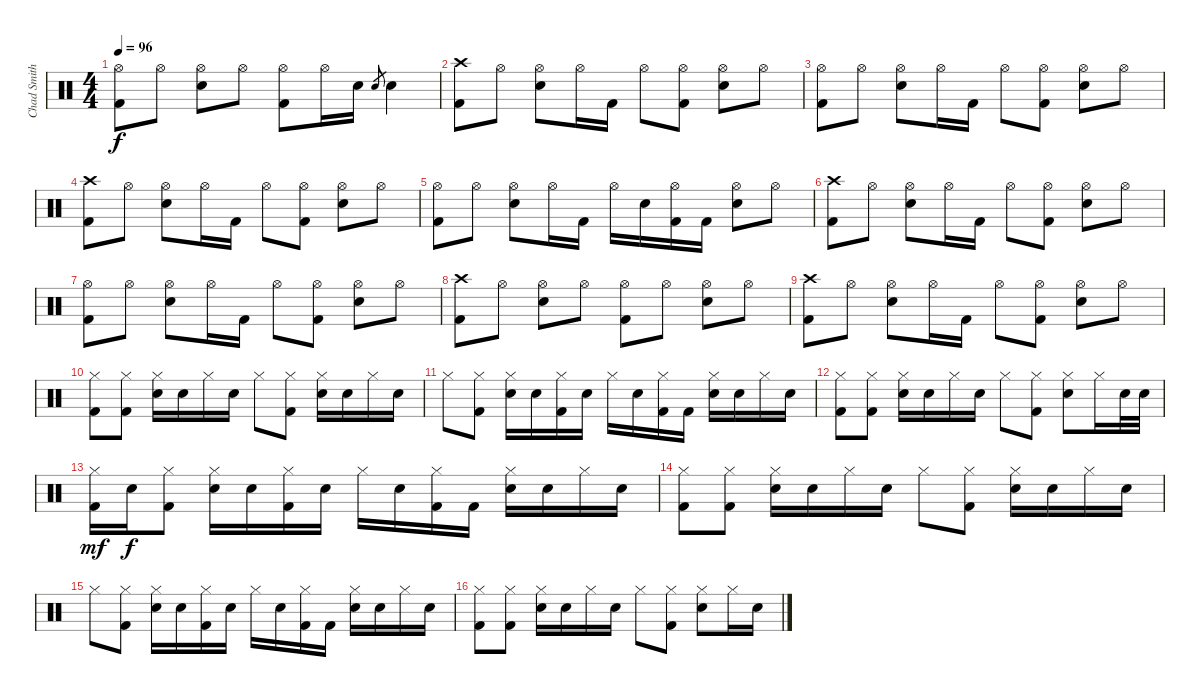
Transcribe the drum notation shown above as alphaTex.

\track ("Chad Smith" "Chad Smith") {instrument percussion}
\staff {score}
\articulation defaults
\ts (4 4)
\tempo 96
\clef neutral
\ks c
("Hi-Hat (open)" "Kick (hit) 2").8{dy f} "Hi-Hat (open)".8 ("Hi-Hat (open)" "Electric Snare (hit)").8 "Hi-Hat (open)".8 ("Hi-Hat (open)" "Kick (hit) 2").8 "Hi-Hat (open)".16 "Electric Snare (hit)".16 "Electric Snare (hit)".8{gr} "Electric Snare (hit)".4 |
("Crash high (hit)" "Kick (hit) 2").8 "Hi-Hat (open)".8 ("Hi-Hat (open)" "Electric Snare (hit)").8 "Hi-Hat (open)".16 "Kick (hit) 2".16 "Hi-Hat (open)".8 ("Hi-Hat (open)" "Kick (hit) 2").8 ("Hi-Hat (open)" "Electric Snare (hit)").8 "Hi-Hat (open)".8 |
("Hi-Hat (open)" "Kick (hit) 2").8 "Hi-Hat (open)".8 ("Hi-Hat (open)" "Electric Snare (hit)").8 "Hi-Hat (open)".16 "Kick (hit) 2".16 "Hi-Hat (open)".8 ("Hi-Hat (open)" "Kick (hit) 2").8 ("Hi-Hat (open)" "Electric Snare (hit)").8 "Hi-Hat (open)".8 |
("Crash high (hit)" "Kick (hit) 2").8 "Hi-Hat (open)".8 ("Hi-Hat (open)" "Electric Snare (hit)").8 "Hi-Hat (open)".16 "Kick (hit) 2".16 "Hi-Hat (open)".8 ("Hi-Hat (open)" "Kick (hit) 2").8 ("Hi-Hat (open)" "Electric Snare (hit)").8 "Hi-Hat (open)".8 |
("Hi-Hat (open)" "Kick (hit) 2").8 "Hi-Hat (open)".8 ("Hi-Hat (open)" "Electric Snare (hit)").8 "Hi-Hat (open)".16 "Kick (hit) 2".16 "Hi-Hat (open)".16 "Electric Snare (hit)".16 ("Hi-Hat (open)" "Kick (hit) 2").16 "Kick (hit) 2".16 ("Hi-Hat (open)" "Electric Snare (hit)").8 "Hi-Hat (open)".8 |
("Crash high (hit)" "Kick (hit) 2").8 "Hi-Hat (open)".8 ("Hi-Hat (open)" "Electric Snare (hit)").8 "Hi-Hat (open)".16 "Kick (hit) 2".16 "Hi-Hat (open)".8 ("Hi-Hat (open)" "Kick (hit) 2").8 ("Hi-Hat (open)" "Electric Snare (hit)").8 "Hi-Hat (open)".8 |
("Hi-Hat (open)" "Kick (hit) 2").8 "Hi-Hat (open)".8 ("Hi-Hat (open)" "Electric Snare (hit)").8 "Hi-Hat (open)".16 "Kick (hit) 2".16 "Hi-Hat (open)".8 ("Hi-Hat (open)" "Kick (hit) 2").8 ("Hi-Hat (open)" "Electric Snare (hit)").8 "Hi-Hat (open)".8 |
("Crash high (hit)" "Kick (hit) 2").8 "Hi-Hat (open)".8 ("Hi-Hat (open)" "Electric Snare (hit)").8 "Hi-Hat (open)".8 ("Hi-Hat (open)" "Kick (hit) 2").8 "Hi-Hat (open)".8 ("Hi-Hat (open)" "Electric Snare (hit)").8 "Hi-Hat (open)".8 |
("Crash high (hit)" "Kick (hit) 2").8 "Hi-Hat (open)".8 ("Hi-Hat (open)" "Electric Snare (hit)").8 "Hi-Hat (open)".16 "Kick (hit) 2".16 "Hi-Hat (open)".8 ("Hi-Hat (open)" "Kick (hit) 2").8 ("Hi-Hat (open)" "Electric Snare (hit)").8 "Hi-Hat (open)".8 |
("Hi-Hat (closed)" "Kick (hit) 2").8 ("Hi-Hat (closed)" "Kick (hit) 2").8 ("Hi-Hat (closed)" "Electric Snare (hit)").16 "Electric Snare (hit)".16 "Hi-Hat (closed)".16 "Electric Snare (hit)".16 "Hi-Hat (closed)".8 ("Hi-Hat (closed)" "Kick (hit) 2").8 ("Hi-Hat (closed)" "Electric Snare (hit)").16 "Electric Snare (hit)".16 "Hi-Hat (closed)".16 "Electric Snare (hit)".16 |
"Hi-Hat (closed)".8 ("Hi-Hat (closed)" "Kick (hit) 2").8 ("Hi-Hat (closed)" "Electric Snare (hit)").16 "Electric Snare (hit)".16 ("Hi-Hat (closed)" "Kick (hit) 2").16 "Electric Snare (hit)".16 "Hi-Hat (closed)".16 "Electric Snare (hit)".16 ("Hi-Hat (closed)" "Kick (hit) 2").16 "Kick (hit) 2".16 ("Hi-Hat (closed)" "Electric Snare (hit)").16 "Electric Snare (hit)".16 "Hi-Hat (closed)".16 "Electric Snare (hit)".16 |
("Hi-Hat (closed)" "Kick (hit) 2").8 ("Hi-Hat (closed)" "Kick (hit) 2").8 ("Hi-Hat (closed)" "Electric Snare (hit)").16 "Electric Snare (hit)".16 "Hi-Hat (closed)".16 "Electric Snare (hit)".16 "Hi-Hat (closed)".8 ("Hi-Hat (closed)" "Kick (hit) 2").8 ("Hi-Hat (closed)" "Electric Snare (hit)").8 "Hi-Hat (closed)".16 "Electric Snare (hit)".32 "Electric Snare (hit)".32 |
("Hi-Hat (closed)" "Kick (hit) 2").16{dy mf} "Electric Snare (hit)".16{dy f} ("Hi-Hat (closed)" "Kick (hit) 2").8 ("Hi-Hat (closed)" "Electric Snare (hit)").16 "Electric Snare (hit)".16 ("Hi-Hat (closed)" "Kick (hit) 2").16 "Electric Snare (hit)".16 "Hi-Hat (closed)".16 "Electric Snare (hit)".16 ("Hi-Hat (closed)" "Kick (hit) 2").16 "Kick (hit) 2".16 ("Hi-Hat (closed)" "Electric Snare (hit)").16 "Electric Snare (hit)".16 "Hi-Hat (closed)".16 "Electric Snare (hit)".16 |
("Hi-Hat (closed)" "Kick (hit) 2").8 ("Hi-Hat (closed)" "Kick (hit) 2").8 ("Hi-Hat (closed)" "Electric Snare (hit)").16 "Electric Snare (hit)".16 "Hi-Hat (closed)".16 "Electric Snare (hit)".16 "Hi-Hat (closed)".8 ("Hi-Hat (closed)" "Kick (hit) 2").8 ("Hi-Hat (closed)" "Electric Snare (hit)").16 "Electric Snare (hit)".16 "Hi-Hat (closed)".16 "Electric Snare (hit)".16 |
"Hi-Hat (closed)".8 ("Hi-Hat (closed)" "Kick (hit) 2").8 ("Hi-Hat (closed)" "Electric Snare (hit)").16 "Electric Snare (hit)".16 ("Hi-Hat (closed)" "Kick (hit) 2").16 "Electric Snare (hit)".16 "Hi-Hat (closed)".16 "Electric Snare (hit)".16 ("Hi-Hat (closed)" "Kick (hit) 2").16 "Kick (hit) 2".16 ("Hi-Hat (closed)" "Electric Snare (hit)").16 "Electric Snare (hit)".16 "Hi-Hat (closed)".16 "Electric Snare (hit)".16 |
("Hi-Hat (closed)" "Kick (hit) 2").8 ("Hi-Hat (closed)" "Kick (hit) 2").8 ("Hi-Hat (closed)" "Electric Snare (hit)").16 "Electric Snare (hit)".16 "Hi-Hat (closed)".16 "Electric Snare (hit)".16 "Hi-Hat (closed)".8 ("Hi-Hat (closed)" "Kick (hit) 2").8 ("Hi-Hat (closed)" "Electric Snare (hit)").8 "Hi-Hat (closed)".16 "Electric Snare (hit)".16
